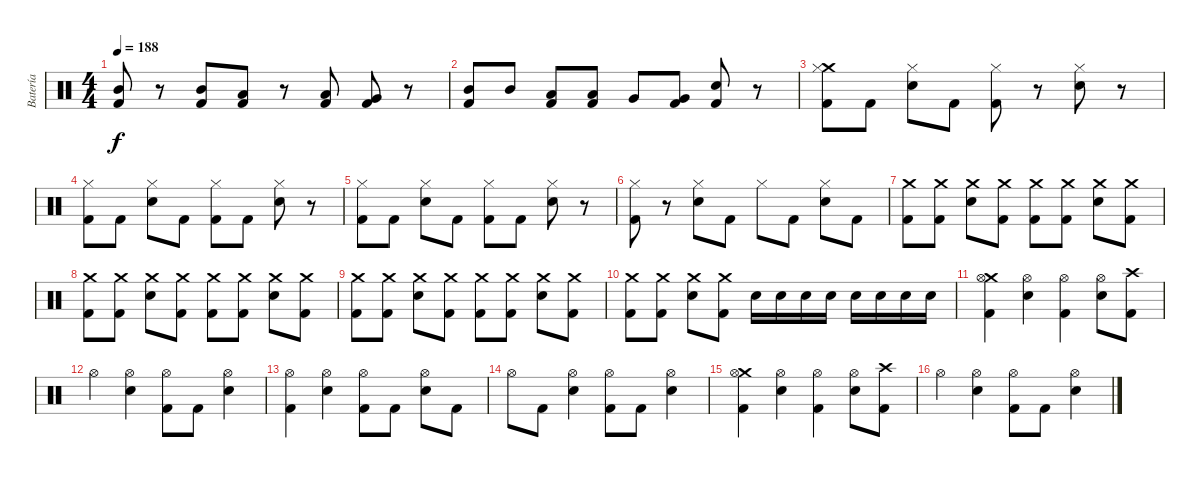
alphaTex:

\track ("Batería" "Batería") {instrument percussion}
\staff {score}
\articulation defaults
\ts (4 4)
\tempo 188
\clef neutral
\ks c
("Mid Tom (hit)" "Kick (hit) 2").8{dy f} r.8 ("Mid Tom (hit)" "Kick (hit) 2").8 ("Low Tom (hit)" "Kick (hit) 2").8 r.8 ("Low Tom (hit)" "Kick (hit) 2").8 ("Very Low Tom (hit)" "Kick (hit) 2").8 r.8 |
("Mid Tom (hit)" "Kick (hit) 2").8 "Mid Tom (hit)".8 ("Low Tom (hit)" "Kick (hit) 2").8 ("Low Tom (hit)" "Kick (hit) 2").8 "Very Low Tom (hit)".8 ("Very Low Tom (hit)" "Kick (hit) 2").8 ("Electric Snare (hit)" "Kick (hit) 2").8 r.8 |
("Crash medium (hit)" "Hi-Hat (closed)" "Kick (hit) 2").8 "Kick (hit) 2".8 ("Hi-Hat (closed)" "Electric Snare (hit)").8 "Kick (hit) 2".8 ("Hi-Hat (closed)" "Kick (hit) 2").8 r.8 ("Hi-Hat (closed)" "Electric Snare (hit)").8 r.8 |
("Hi-Hat (closed)" "Kick (hit) 2").8 "Kick (hit) 2".8 ("Hi-Hat (closed)" "Electric Snare (hit)").8 "Kick (hit) 2".8 ("Hi-Hat (closed)" "Kick (hit) 2").8 "Kick (hit) 2".8 ("Hi-Hat (closed)" "Electric Snare (hit)").8 r.8 |
("Hi-Hat (closed)" "Kick (hit) 2").8 "Kick (hit) 2".8 ("Hi-Hat (closed)" "Electric Snare (hit)").8 "Kick (hit) 2".8 ("Hi-Hat (closed)" "Kick (hit) 2").8 "Kick (hit) 2".8 ("Hi-Hat (closed)" "Electric Snare (hit)").8 r.8 |
("Hi-Hat (closed)" "Kick (hit) 2").8 r.8 ("Hi-Hat (closed)" "Electric Snare (hit)").8 "Kick (hit) 2".8 "Hi-Hat (closed)".8 "Kick (hit) 2".8 ("Hi-Hat (closed)" "Electric Snare (hit)").8 "Kick (hit) 2".8 |
("Crash medium (hit)" "Kick (hit) 2").8 ("Crash medium (hit)" "Kick (hit) 2").8 ("Crash medium (hit)" "Electric Snare (hit)").8 ("Crash medium (hit)" "Kick (hit) 2").8 ("Crash medium (hit)" "Kick (hit) 2").8 ("Crash medium (hit)" "Kick (hit) 2").8 ("Crash medium (hit)" "Electric Snare (hit)").8 ("Crash medium (hit)" "Kick (hit) 2").8 |
("Crash medium (hit)" "Kick (hit) 2").8 ("Crash medium (hit)" "Kick (hit) 2").8 ("Crash medium (hit)" "Electric Snare (hit)").8 ("Crash medium (hit)" "Kick (hit) 2").8 ("Crash medium (hit)" "Kick (hit) 2").8 ("Crash medium (hit)" "Kick (hit) 2").8 ("Crash medium (hit)" "Electric Snare (hit)").8 ("Crash medium (hit)" "Kick (hit) 2").8 |
("Crash medium (hit)" "Kick (hit) 2").8 ("Crash medium (hit)" "Kick (hit) 2").8 ("Crash medium (hit)" "Electric Snare (hit)").8 ("Crash medium (hit)" "Kick (hit) 2").8 ("Crash medium (hit)" "Kick (hit) 2").8 ("Crash medium (hit)" "Kick (hit) 2").8 ("Crash medium (hit)" "Electric Snare (hit)").8 ("Crash medium (hit)" "Kick (hit) 2").8 |
("Crash medium (hit)" "Kick (hit) 2").8 ("Crash medium (hit)" "Kick (hit) 2").8 ("Crash medium (hit)" "Electric Snare (hit)").8 ("Crash medium (hit)" "Kick (hit) 2").8 "Electric Snare (hit)".16 "Electric Snare (hit)".16 "Electric Snare (hit)".16 "Electric Snare (hit)".16 "Electric Snare (hit)".16 "Electric Snare (hit)".16 "Electric Snare (hit)".16 "Electric Snare (hit)".16 |
("Crash medium (hit)" "Hi-Hat (open)" "Kick (hit) 2").4 ("Hi-Hat (open)" "Electric Snare (hit)").4 ("Hi-Hat (open)" "Kick (hit) 2").4 ("Hi-Hat (open)" "Electric Snare (hit)").8 ("Crash high (hit)" "Kick (hit) 2").8 |
"Hi-Hat (open)".4 ("Hi-Hat (open)" "Electric Snare (hit)").4 ("Hi-Hat (open)" "Kick (hit) 2").8 "Kick (hit) 2".8 ("Hi-Hat (open)" "Electric Snare (hit)").4 |
("Hi-Hat (open)" "Kick (hit) 2").4 ("Hi-Hat (open)" "Electric Snare (hit)").4 ("Hi-Hat (open)" "Kick (hit) 2").8 "Kick (hit) 2".8 ("Hi-Hat (open)" "Electric Snare (hit)").8 "Kick (hit) 2".8 |
"Hi-Hat (open)".8 "Kick (hit) 2".8 ("Hi-Hat (open)" "Electric Snare (hit)").4 ("Hi-Hat (open)" "Kick (hit) 2").8 "Kick (hit) 2".8 ("Hi-Hat (open)" "Electric Snare (hit)").4 |
("Crash medium (hit)" "Hi-Hat (open)" "Kick (hit) 2").4 ("Hi-Hat (open)" "Electric Snare (hit)").4 ("Hi-Hat (open)" "Kick (hit) 2").4 ("Hi-Hat (open)" "Electric Snare (hit)").8 ("Crash high (hit)" "Kick (hit) 2").8 |
"Hi-Hat (open)".4 ("Hi-Hat (open)" "Electric Snare (hit)").4 ("Hi-Hat (open)" "Kick (hit) 2").8 "Kick (hit) 2".8 ("Hi-Hat (open)" "Electric Snare (hit)").4
